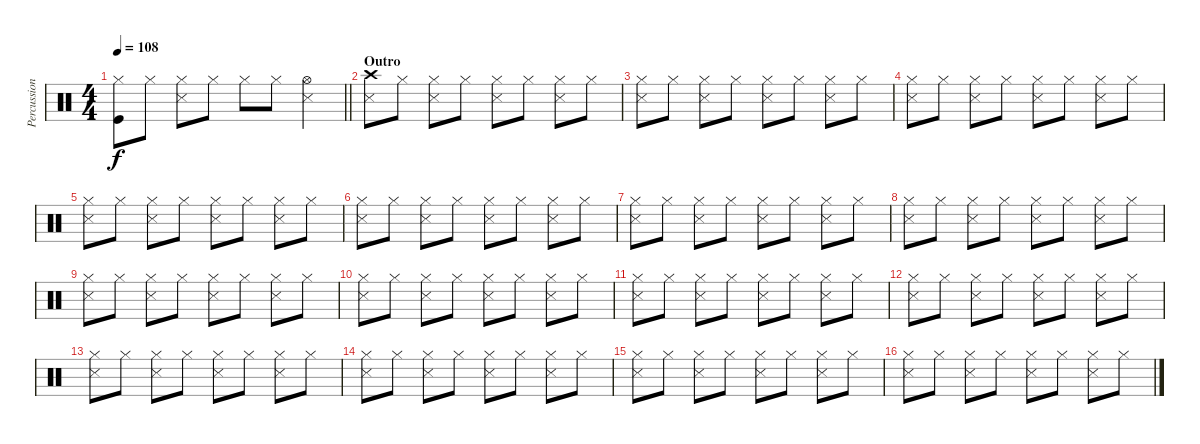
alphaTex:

\track ("Percussion" "Percussion") {instrument percussion}
\staff {score}
\articulation defaults
\ts (4 4)
\tempo 108
\clef neutral
\barLineRight lightlight
\ks c
("Hi-Hat (closed)" "Kick (hit)").8{dy f} "Hi-Hat (closed)".8 ("Hi-Hat (closed)" "Snare (side stick) 3").8 "Hi-Hat (closed)".8 "Hi-Hat (closed)".8 "Hi-Hat (closed)".8 ("Hi-Hat (open)" "Snare (side stick) 3").4 |
\section ("" "Outro")
("Crash high (hit)" "Snare (side stick) 3").8 "Hi-Hat (closed)".8 ("Hi-Hat (closed)" "Snare (side stick) 3").8 "Hi-Hat (closed)".8 ("Hi-Hat (closed)" "Snare (side stick) 3").8 "Hi-Hat (closed)".8 ("Hi-Hat (closed)" "Snare (side stick) 3").8 "Hi-Hat (closed)".8 |
("Hi-Hat (closed)" "Snare (side stick) 3").8 "Hi-Hat (closed)".8 ("Hi-Hat (closed)" "Snare (side stick) 3").8 "Hi-Hat (closed)".8 ("Hi-Hat (closed)" "Snare (side stick) 3").8 "Hi-Hat (closed)".8 ("Hi-Hat (closed)" "Snare (side stick) 3").8 "Hi-Hat (closed)".8 |
("Hi-Hat (closed)" "Snare (side stick) 3").8 "Hi-Hat (closed)".8 ("Hi-Hat (closed)" "Snare (side stick) 3").8 "Hi-Hat (closed)".8 ("Hi-Hat (closed)" "Snare (side stick) 3").8 "Hi-Hat (closed)".8 ("Hi-Hat (closed)" "Snare (side stick) 3").8 "Hi-Hat (closed)".8 |
("Hi-Hat (closed)" "Snare (side stick) 3").8 "Hi-Hat (closed)".8 ("Hi-Hat (closed)" "Snare (side stick) 3").8 "Hi-Hat (closed)".8 ("Hi-Hat (closed)" "Snare (side stick) 3").8 "Hi-Hat (closed)".8 ("Hi-Hat (closed)" "Snare (side stick) 3").8 "Hi-Hat (closed)".8 |
("Hi-Hat (closed)" "Snare (side stick) 3").8 "Hi-Hat (closed)".8 ("Hi-Hat (closed)" "Snare (side stick) 3").8 "Hi-Hat (closed)".8 ("Hi-Hat (closed)" "Snare (side stick) 3").8 "Hi-Hat (closed)".8 ("Hi-Hat (closed)" "Snare (side stick) 3").8 "Hi-Hat (closed)".8 |
("Hi-Hat (closed)" "Snare (side stick) 3").8 "Hi-Hat (closed)".8 ("Hi-Hat (closed)" "Snare (side stick) 3").8 "Hi-Hat (closed)".8 ("Hi-Hat (closed)" "Snare (side stick) 3").8 "Hi-Hat (closed)".8 ("Hi-Hat (closed)" "Snare (side stick) 3").8 "Hi-Hat (closed)".8 |
("Hi-Hat (closed)" "Snare (side stick) 3").8 "Hi-Hat (closed)".8 ("Hi-Hat (closed)" "Snare (side stick) 3").8 "Hi-Hat (closed)".8 ("Hi-Hat (closed)" "Snare (side stick) 3").8 "Hi-Hat (closed)".8 ("Hi-Hat (closed)" "Snare (side stick) 3").8 "Hi-Hat (closed)".8 |
("Hi-Hat (closed)" "Snare (side stick) 3").8 "Hi-Hat (closed)".8 ("Hi-Hat (closed)" "Snare (side stick) 3").8 "Hi-Hat (closed)".8 ("Hi-Hat (closed)" "Snare (side stick) 3").8 "Hi-Hat (closed)".8 ("Hi-Hat (closed)" "Snare (side stick) 3").8 "Hi-Hat (closed)".8 |
("Hi-Hat (closed)" "Snare (side stick) 3").8 "Hi-Hat (closed)".8 ("Hi-Hat (closed)" "Snare (side stick) 3").8 "Hi-Hat (closed)".8 ("Hi-Hat (closed)" "Snare (side stick) 3").8 "Hi-Hat (closed)".8 ("Hi-Hat (closed)" "Snare (side stick) 3").8 "Hi-Hat (closed)".8 |
("Hi-Hat (closed)" "Snare (side stick) 3").8 "Hi-Hat (closed)".8 ("Hi-Hat (closed)" "Snare (side stick) 3").8 "Hi-Hat (closed)".8 ("Hi-Hat (closed)" "Snare (side stick) 3").8 "Hi-Hat (closed)".8 ("Hi-Hat (closed)" "Snare (side stick) 3").8 "Hi-Hat (closed)".8 |
("Hi-Hat (closed)" "Snare (side stick) 3").8 "Hi-Hat (closed)".8 ("Hi-Hat (closed)" "Snare (side stick) 3").8 "Hi-Hat (closed)".8 ("Hi-Hat (closed)" "Snare (side stick) 3").8 "Hi-Hat (closed)".8 ("Hi-Hat (closed)" "Snare (side stick) 3").8 "Hi-Hat (closed)".8 |
("Hi-Hat (closed)" "Snare (side stick) 3").8 "Hi-Hat (closed)".8 ("Hi-Hat (closed)" "Snare (side stick) 3").8 "Hi-Hat (closed)".8 ("Hi-Hat (closed)" "Snare (side stick) 3").8 "Hi-Hat (closed)".8 ("Hi-Hat (closed)" "Snare (side stick) 3").8 "Hi-Hat (closed)".8 |
("Hi-Hat (closed)" "Snare (side stick) 3").8 "Hi-Hat (closed)".8 ("Hi-Hat (closed)" "Snare (side stick) 3").8 "Hi-Hat (closed)".8 ("Hi-Hat (closed)" "Snare (side stick) 3").8 "Hi-Hat (closed)".8 ("Hi-Hat (closed)" "Snare (side stick) 3").8 "Hi-Hat (closed)".8 |
("Hi-Hat (closed)" "Snare (side stick) 3").8 "Hi-Hat (closed)".8 ("Hi-Hat (closed)" "Snare (side stick) 3").8 "Hi-Hat (closed)".8 ("Hi-Hat (closed)" "Snare (side stick) 3").8 "Hi-Hat (closed)".8 ("Hi-Hat (closed)" "Snare (side stick) 3").8 "Hi-Hat (closed)".8 |
("Hi-Hat (closed)" "Snare (side stick) 3").8 "Hi-Hat (closed)".8 ("Hi-Hat (closed)" "Snare (side stick) 3").8 "Hi-Hat (closed)".8 ("Hi-Hat (closed)" "Snare (side stick) 3").8 "Hi-Hat (closed)".8 ("Hi-Hat (closed)" "Snare (side stick) 3").8 "Hi-Hat (closed)".8
